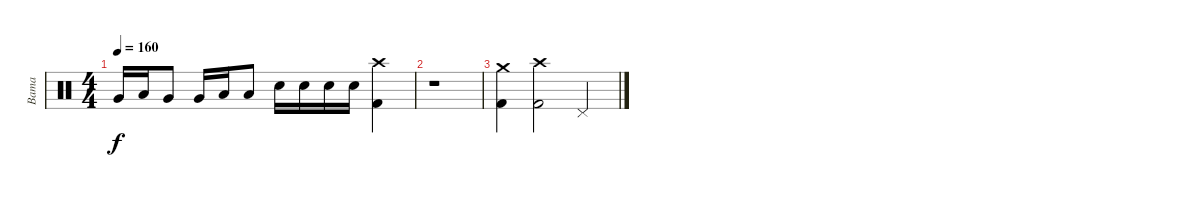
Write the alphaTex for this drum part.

\track ("Bama" "Bama") {instrument percussion}
\staff {score}
\articulation defaults
\ts (4 4)
\tempo 160
\clef neutral
\ks c "Very Low Tom (hit)".16{dy f} "Low Tom (hit)".16 "Very Low Tom (hit)".8 "Very Low Tom (hit)".16 "Low Floor Tom (hit)".16 "Low Floor Tom (hit)".8 "Electric Snare (hit)".16 "Electric Snare (hit)".16 "Electric Snare (hit)".16 "Electric Snare (hit)".16
("Crash high (hit)" "Kick (hit) 2").4 |
r.1 |
("Crash medium (hit)" "Kick (hit) 2").4 ("Crash high (hit)" "Kick (hit) 2").2 "Pedal Hi-Hat (hit)".4
